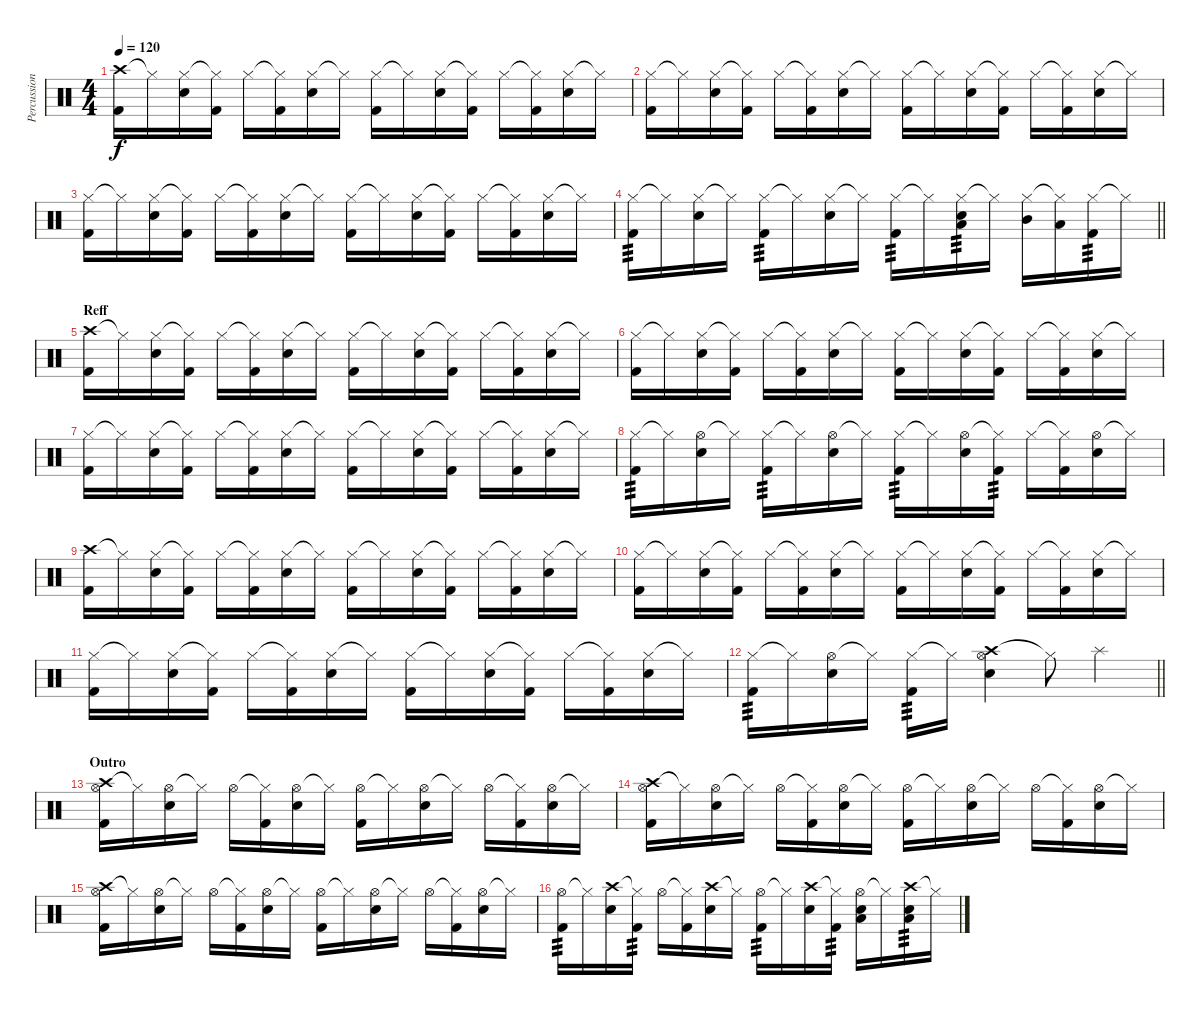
\track ("Percussion" "Percussion") {instrument percussion}
\staff {score}
\articulation defaults
\ts (4 4)
\tempo 120
\clef neutral
\ks c
("Crash high (hit)" "Kick (hit) 2").16{dy f} "Hi-Hat (closed)"{t}.16 ("Hi-Hat (closed)" "Electric Snare (hit)").16 ("Hi-Hat (closed)"{t} "Kick (hit) 2").16 "Hi-Hat (closed)".16 ("Hi-Hat (closed)"{t} "Kick (hit) 2").16 ("Hi-Hat (closed)" "Electric Snare (hit)").16 "Hi-Hat (closed)"{t}.16 ("Hi-Hat (closed)" "Kick (hit) 2").16 "Hi-Hat (closed)"{t}.16 ("Hi-Hat (closed)" "Electric Snare (hit)").16 ("Hi-Hat (closed)"{t} "Kick (hit) 2").16 "Hi-Hat (closed)".16 ("Hi-Hat (closed)"{t} "Kick (hit) 2").16 ("Hi-Hat (closed)" "Electric Snare (hit)").16 "Hi-Hat (closed)"{t}.16 |
("Hi-Hat (closed)" "Kick (hit) 2").16 "Hi-Hat (closed)"{t}.16 ("Hi-Hat (closed)" "Electric Snare (hit)").16 ("Hi-Hat (closed)"{t} "Kick (hit) 2").16 "Hi-Hat (closed)".16 ("Hi-Hat (closed)"{t} "Kick (hit) 2").16 ("Hi-Hat (closed)" "Electric Snare (hit)").16 "Hi-Hat (closed)"{t}.16 ("Hi-Hat (closed)" "Kick (hit) 2").16 "Hi-Hat (closed)"{t}.16 ("Hi-Hat (closed)" "Electric Snare (hit)").16 ("Hi-Hat (closed)"{t} "Kick (hit) 2").16 "Hi-Hat (closed)".16 ("Hi-Hat (closed)"{t} "Kick (hit) 2").16 ("Hi-Hat (closed)" "Electric Snare (hit)").16 "Hi-Hat (closed)"{t}.16 |
("Hi-Hat (closed)" "Kick (hit) 2").16 "Hi-Hat (closed)"{t}.16 ("Hi-Hat (closed)" "Electric Snare (hit)").16 ("Hi-Hat (closed)"{t} "Kick (hit) 2").16 "Hi-Hat (closed)".16 ("Hi-Hat (closed)"{t} "Kick (hit) 2").16 ("Hi-Hat (closed)" "Electric Snare (hit)").16 "Hi-Hat (closed)"{t}.16 ("Hi-Hat (closed)" "Kick (hit) 2").16 "Hi-Hat (closed)"{t}.16 ("Hi-Hat (closed)" "Electric Snare (hit)").16 ("Hi-Hat (closed)"{t} "Kick (hit) 2").16 "Hi-Hat (closed)".16 ("Hi-Hat (closed)"{t} "Kick (hit) 2").16 ("Hi-Hat (closed)" "Electric Snare (hit)").16 "Hi-Hat (closed)"{t}.16 |
\barLineRight lightlight
("Hi-Hat (closed)" "Kick (hit) 2").16{tp 3} "Hi-Hat (closed)"{t}.16 ("Hi-Hat (closed)" "Electric Snare (hit)").16 "Hi-Hat (closed)"{t}.16 ("Hi-Hat (closed)" "Kick (hit) 2").16{tp 3} "Hi-Hat (closed)"{t}.16 ("Hi-Hat (closed)" "Electric Snare (hit)").16 "Hi-Hat (closed)"{t}.16 ("Hi-Hat (closed)" "Kick (hit) 2").16{tp 3} "Hi-Hat (closed)"{t}.16 ("Hi-Hat (closed)" "Electric Snare (hit)" "Low Tom (hit)").16{tp 3} "Hi-Hat (closed)"{t}.16 ("Hi-Hat (closed)" "Mid Tom (hit)").16 ("Hi-Hat (closed)"{t} "Low Tom (hit)").16 ("Hi-Hat (closed)" "Kick (hit) 2").16{tp 3} "Hi-Hat (closed)"{t}.16 |
\section ("" "Reff")
("Crash high (hit)" "Kick (hit) 2").16 "Hi-Hat (closed)"{t}.16 ("Hi-Hat (closed)" "Electric Snare (hit)").16 ("Hi-Hat (closed)"{t} "Kick (hit) 2").16 "Hi-Hat (closed)".16 ("Hi-Hat (closed)"{t} "Kick (hit) 2").16 ("Hi-Hat (closed)" "Electric Snare (hit)").16 "Hi-Hat (closed)"{t}.16 ("Hi-Hat (closed)" "Kick (hit) 2").16 "Hi-Hat (closed)"{t}.16 ("Hi-Hat (closed)" "Electric Snare (hit)").16 ("Hi-Hat (closed)"{t} "Kick (hit) 2").16 "Hi-Hat (closed)".16 ("Hi-Hat (closed)"{t} "Kick (hit) 2").16 ("Hi-Hat (closed)" "Electric Snare (hit)").16 "Hi-Hat (closed)"{t}.16 |
("Hi-Hat (closed)" "Kick (hit) 2").16 "Hi-Hat (closed)"{t}.16 ("Hi-Hat (closed)" "Electric Snare (hit)").16 ("Hi-Hat (closed)"{t} "Kick (hit) 2").16 "Hi-Hat (closed)".16 ("Hi-Hat (closed)"{t} "Kick (hit) 2").16 ("Hi-Hat (closed)" "Electric Snare (hit)").16 "Hi-Hat (closed)"{t}.16 ("Hi-Hat (closed)" "Kick (hit) 2").16 "Hi-Hat (closed)"{t}.16 ("Hi-Hat (closed)" "Electric Snare (hit)").16 ("Hi-Hat (closed)"{t} "Kick (hit) 2").16 "Hi-Hat (closed)".16 ("Hi-Hat (closed)"{t} "Kick (hit) 2").16 ("Hi-Hat (closed)" "Electric Snare (hit)").16 "Hi-Hat (closed)"{t}.16 |
("Hi-Hat (closed)" "Kick (hit) 2").16 "Hi-Hat (closed)"{t}.16 ("Hi-Hat (closed)" "Electric Snare (hit)").16 ("Hi-Hat (closed)"{t} "Kick (hit) 2").16 "Hi-Hat (closed)".16 ("Hi-Hat (closed)"{t} "Kick (hit) 2").16 ("Hi-Hat (closed)" "Electric Snare (hit)").16 "Hi-Hat (closed)"{t}.16 ("Hi-Hat (closed)" "Kick (hit) 2").16 "Hi-Hat (closed)"{t}.16 ("Hi-Hat (closed)" "Electric Snare (hit)").16 ("Hi-Hat (closed)"{t} "Kick (hit) 2").16 "Hi-Hat (closed)".16 ("Hi-Hat (closed)"{t} "Kick (hit) 2").16 ("Hi-Hat (closed)" "Electric Snare (hit)").16 "Hi-Hat (closed)"{t}.16 |
("Hi-Hat (closed)" "Kick (hit) 2").16{tp 3} "Hi-Hat (closed)"{t}.16 ("Hi-Hat (open)" "Electric Snare (hit)").16 "Hi-Hat (closed)"{t}.16 ("Hi-Hat (closed)" "Kick (hit) 2").16{tp 3} "Hi-Hat (closed)"{t}.16 ("Hi-Hat (open)" "Electric Snare (hit)").16 "Hi-Hat (closed)"{t}.16 ("Hi-Hat (closed)" "Kick (hit) 2").16{tp 3} "Hi-Hat (closed)"{t}.16 ("Hi-Hat (open)" "Electric Snare (hit)").16 ("Hi-Hat (closed)"{t} "Kick (hit) 2").16{tp 3} "Hi-Hat (closed)".16 ("Hi-Hat (closed)"{t} "Kick (hit) 2").16 ("Hi-Hat (open)" "Electric Snare (hit)").16 "Hi-Hat (closed)"{t}.16 |
("Crash high (hit)" "Kick (hit) 2").16 "Hi-Hat (closed)"{t}.16 ("Hi-Hat (closed)" "Electric Snare (hit)").16 ("Hi-Hat (closed)"{t} "Kick (hit) 2").16 "Hi-Hat (closed)".16 ("Hi-Hat (closed)"{t} "Kick (hit) 2").16 ("Hi-Hat (closed)" "Electric Snare (hit)").16 "Hi-Hat (closed)"{t}.16 ("Hi-Hat (closed)" "Kick (hit) 2").16 "Hi-Hat (closed)"{t}.16 ("Hi-Hat (closed)" "Electric Snare (hit)").16 ("Hi-Hat (closed)"{t} "Kick (hit) 2").16 "Hi-Hat (closed)".16 ("Hi-Hat (closed)"{t} "Kick (hit) 2").16 ("Hi-Hat (closed)" "Electric Snare (hit)").16 "Hi-Hat (closed)"{t}.16 |
("Hi-Hat (closed)" "Kick (hit) 2").16 "Hi-Hat (closed)"{t}.16 ("Hi-Hat (closed)" "Electric Snare (hit)").16 ("Hi-Hat (closed)"{t} "Kick (hit) 2").16 "Hi-Hat (closed)".16 ("Hi-Hat (closed)"{t} "Kick (hit) 2").16 ("Hi-Hat (closed)" "Electric Snare (hit)").16 "Hi-Hat (closed)"{t}.16 ("Hi-Hat (closed)" "Kick (hit) 2").16 "Hi-Hat (closed)"{t}.16 ("Hi-Hat (closed)" "Electric Snare (hit)").16 ("Hi-Hat (closed)"{t} "Kick (hit) 2").16 "Hi-Hat (closed)".16 ("Hi-Hat (closed)"{t} "Kick (hit) 2").16 ("Hi-Hat (closed)" "Electric Snare (hit)").16 "Hi-Hat (closed)"{t}.16 |
("Hi-Hat (closed)" "Kick (hit) 2").16 "Hi-Hat (closed)"{t}.16 ("Hi-Hat (closed)" "Electric Snare (hit)").16 ("Hi-Hat (closed)"{t} "Kick (hit) 2").16 "Hi-Hat (closed)".16 ("Hi-Hat (closed)"{t} "Kick (hit) 2").16 ("Hi-Hat (closed)" "Electric Snare (hit)").16 "Hi-Hat (closed)"{t}.16 ("Hi-Hat (closed)" "Kick (hit) 2").16 "Hi-Hat (closed)"{t}.16 ("Hi-Hat (closed)" "Electric Snare (hit)").16 ("Hi-Hat (closed)"{t} "Kick (hit) 2").16 "Hi-Hat (closed)".16 ("Hi-Hat (closed)"{t} "Kick (hit) 2").16 ("Hi-Hat (closed)" "Electric Snare (hit)").16 "Hi-Hat (closed)"{t}.16 |
\barLineRight lightlight
("Hi-Hat (closed)" "Kick (hit) 2").16{tp 3} "Hi-Hat (closed)"{t}.16 ("Hi-Hat (open)" "Electric Snare (hit)").16 "Hi-Hat (closed)"{t}.16 ("Hi-Hat (closed)" "Kick (hit) 2").16{tp 3} "Hi-Hat (closed)"{t}.16 ("Crash high (hit)" "Hi-Hat (open)" "Electric Snare (hit)").4 "Hi-Hat (closed)"{t}.8 "Splash (hit)".4 |
\section ("" "Outro")
("Crash high (hit)" "Hi-Hat (open)" "Kick (hit) 2").16 "Hi-Hat (closed)"{t}.16 ("Hi-Hat (open)" "Electric Snare (hit)").16 "Hi-Hat (closed)"{t}.16 "Hi-Hat (open)".16 ("Hi-Hat (closed)"{t} "Kick (hit) 2").16 ("Hi-Hat (open)" "Electric Snare (hit)").16 "Hi-Hat (closed)"{t}.16 ("Hi-Hat (open)" "Kick (hit) 2").16 "Hi-Hat (closed)"{t}.16 ("Hi-Hat (open)" "Electric Snare (hit)").16 "Hi-Hat (closed)"{t}.16 "Hi-Hat (open)".16 ("Hi-Hat (closed)"{t} "Kick (hit) 2").16 ("Hi-Hat (open)" "Electric Snare (hit)").16 "Hi-Hat (closed)"{t}.16 |
("Crash high (hit)" "Hi-Hat (open)" "Kick (hit) 2").16 "Hi-Hat (closed)"{t}.16 ("Hi-Hat (open)" "Electric Snare (hit)").16 "Hi-Hat (closed)"{t}.16 "Hi-Hat (open)".16 ("Hi-Hat (closed)"{t} "Kick (hit) 2").16 ("Hi-Hat (open)" "Electric Snare (hit)").16 "Hi-Hat (closed)"{t}.16 ("Hi-Hat (open)" "Kick (hit) 2").16 "Hi-Hat (closed)"{t}.16 ("Hi-Hat (open)" "Electric Snare (hit)").16 "Hi-Hat (closed)"{t}.16 "Hi-Hat (open)".16 ("Hi-Hat (closed)"{t} "Kick (hit) 2").16 ("Hi-Hat (open)" "Electric Snare (hit)").16 "Hi-Hat (closed)"{t}.16 |
("Crash high (hit)" "Hi-Hat (open)" "Kick (hit) 2").16 "Hi-Hat (closed)"{t}.16 ("Hi-Hat (open)" "Electric Snare (hit)").16 "Hi-Hat (closed)"{t}.16 "Hi-Hat (open)".16 ("Hi-Hat (closed)"{t} "Kick (hit) 2").16 ("Hi-Hat (open)" "Electric Snare (hit)").16 "Hi-Hat (closed)"{t}.16 ("Hi-Hat (open)" "Kick (hit) 2").16 "Hi-Hat (closed)"{t}.16 ("Hi-Hat (open)" "Electric Snare (hit)").16 "Hi-Hat (closed)"{t}.16 "Hi-Hat (open)".16 ("Hi-Hat (closed)"{t} "Kick (hit) 2").16 ("Hi-Hat (open)" "Electric Snare (hit)").16 "Hi-Hat (closed)"{t}.16 |
("Hi-Hat (open)" "Kick (hit) 2").16{tp 3} "Hi-Hat (closed)"{t}.16 ("Crash high (hit)" "Electric Snare (hit)").16 ("Hi-Hat (closed)"{t} "Kick (hit) 2").16{tp 3} "Hi-Hat (open)".16 ("Hi-Hat (closed)"{t} "Kick (hit) 2").16 ("Crash high (hit)" "Electric Snare (hit)").16 "Hi-Hat (closed)"{t}.16 ("Hi-Hat (open)" "Kick (hit) 2").16{tp 3} "Hi-Hat (closed)"{t}.16 ("Crash high (hit)" "Electric Snare (hit)").16 ("Hi-Hat (closed)"{t} "Kick (hit) 2").16{tp 3} ("Hi-Hat (open)" "Electric Snare (hit)" "Low Tom (hit)").16 "Hi-Hat (closed)"{t}.16 ("Crash high (hit)" "Electric Snare (hit)" "Low Tom (hit)").16{tp 3} "Hi-Hat (closed)"{t}.16
